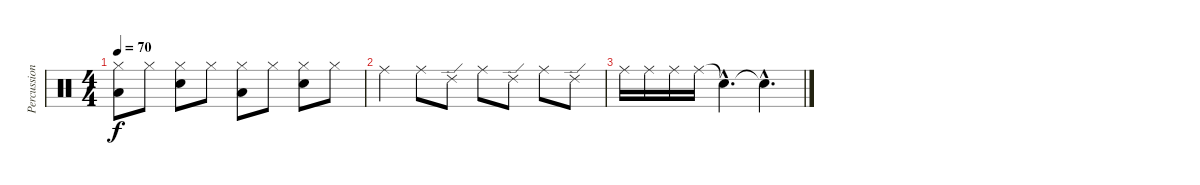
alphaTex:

\track ("Percussion" "Percussion") {instrument percussion}
\staff {score}
\articulation defaults
\ts (4 4)
\tempo 70
\clef neutral
\ks c
("Low Floor Tom (hit)" "Hi-Hat (closed)").8{dy f} "Hi-Hat (closed)".8 ("Snare (hit) 2" "Hi-Hat (closed)").8 "Hi-Hat (closed)".8 ("Low Floor Tom (hit)" "Hi-Hat (closed)").8 "Hi-Hat (closed)".8 ("Snare (hit) 2" "Hi-Hat (closed)").8 "Hi-Hat (closed)".8 |
"Ride (middle)".4 "Ride (middle)".8 "Ride (edge) 2".8 "Ride (middle)".8 "Ride (edge) 2".8 "Ride (middle)".8 "Ride (edge) 2".8 |
"Ride (middle)".16 "Ride (middle)".16 "Ride (middle)".16 "Ride (middle)".16 "Snare (hit)"{hac t}.4{d} "Snare (hit)"{hac t}.4{d}
